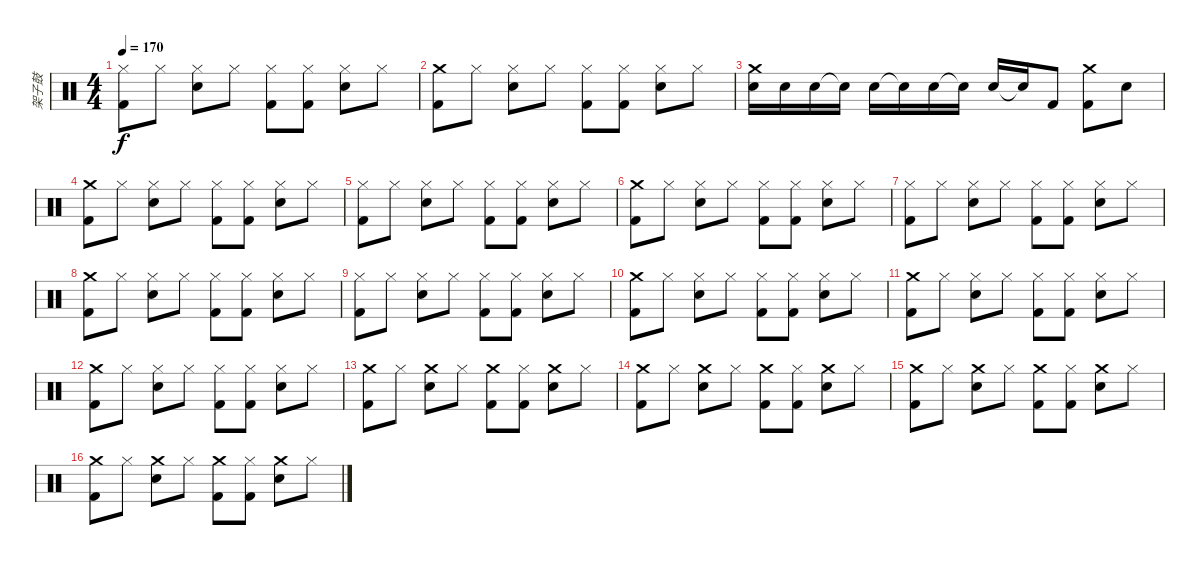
\track ("架子鼓" "架子鼓") {instrument percussion}
\staff {score}
\articulation defaults
\ts (4 4)
\tempo 170
\clef neutral
\ks c
("Hi-Hat (closed)" "Kick (hit) 2").8{dy f} "Hi-Hat (closed)".8 ("Hi-Hat (closed)" "Snare (hit) 2").8 "Hi-Hat (closed)".8 ("Hi-Hat (closed)" "Kick (hit) 2").8 ("Hi-Hat (closed)" "Kick (hit) 2").8 ("Hi-Hat (closed)" "Snare (hit) 2").8 "Hi-Hat (closed)".8 |
("Crash medium (hit)" "Kick (hit) 2").8 "Hi-Hat (closed)".8 ("Hi-Hat (closed)" "Snare (hit) 2").8 "Hi-Hat (closed)".8 ("Hi-Hat (closed)" "Kick (hit) 2").8 ("Hi-Hat (closed)" "Kick (hit) 2").8 ("Hi-Hat (closed)" "Snare (hit) 2").8 "Hi-Hat (closed)".8 |
("Crash medium (hit)" "Snare (hit) 2").16 "Snare (hit) 2".16 "Snare (hit) 2".16 "Snare (hit)"{t}.16 "Snare (hit) 2".16 "Snare (hit)"{t}.16 "Snare (hit) 2".16 "Snare (hit)"{t}.16 "Snare (hit) 2".16 "Snare (hit)"{t}.16 "Kick (hit) 2".8 ("Crash medium (hit)" "Kick (hit) 2").8 "Snare (hit) 2".8 |
("Crash medium (hit)" "Kick (hit) 2").8 "Hi-Hat (closed)".8 ("Hi-Hat (closed)" "Snare (hit) 2").8 "Hi-Hat (closed)".8 ("Hi-Hat (closed)" "Kick (hit) 2").8 ("Hi-Hat (closed)" "Kick (hit) 2").8 ("Hi-Hat (closed)" "Snare (hit) 2").8 "Hi-Hat (closed)".8 |
("Hi-Hat (closed)" "Kick (hit) 2").8 "Hi-Hat (closed)".8 ("Hi-Hat (closed)" "Snare (hit) 2").8 "Hi-Hat (closed)".8 ("Hi-Hat (closed)" "Kick (hit) 2").8 ("Hi-Hat (closed)" "Kick (hit) 2").8 ("Hi-Hat (closed)" "Snare (hit) 2").8 "Hi-Hat (closed)".8 |
("Crash medium (hit)" "Kick (hit) 2").8 "Hi-Hat (closed)".8 ("Hi-Hat (closed)" "Snare (hit) 2").8 "Hi-Hat (closed)".8 ("Hi-Hat (closed)" "Kick (hit) 2").8 ("Hi-Hat (closed)" "Kick (hit) 2").8 ("Hi-Hat (closed)" "Snare (hit) 2").8 "Hi-Hat (closed)".8 |
("Hi-Hat (closed)" "Kick (hit) 2").8 "Hi-Hat (closed)".8 ("Hi-Hat (closed)" "Snare (hit) 2").8 "Hi-Hat (closed)".8 ("Hi-Hat (closed)" "Kick (hit) 2").8 ("Hi-Hat (closed)" "Kick (hit) 2").8 ("Hi-Hat (closed)" "Snare (hit) 2").8 "Hi-Hat (closed)".8 |
("Crash medium (hit)" "Kick (hit) 2").8 "Hi-Hat (closed)".8 ("Hi-Hat (closed)" "Snare (hit) 2").8 "Hi-Hat (closed)".8 ("Hi-Hat (closed)" "Kick (hit) 2").8 ("Hi-Hat (closed)" "Kick (hit) 2").8 ("Hi-Hat (closed)" "Snare (hit) 2").8 "Hi-Hat (closed)".8 |
("Hi-Hat (closed)" "Kick (hit) 2").8 "Hi-Hat (closed)".8 ("Hi-Hat (closed)" "Snare (hit) 2").8 "Hi-Hat (closed)".8 ("Hi-Hat (closed)" "Kick (hit) 2").8 ("Hi-Hat (closed)" "Kick (hit) 2").8 ("Hi-Hat (closed)" "Snare (hit) 2").8 "Hi-Hat (closed)".8 |
("Crash medium (hit)" "Kick (hit) 2").8 "Hi-Hat (closed)".8 ("Hi-Hat (closed)" "Snare (hit) 2").8 "Hi-Hat (closed)".8 ("Hi-Hat (closed)" "Kick (hit) 2").8 ("Hi-Hat (closed)" "Kick (hit) 2").8 ("Hi-Hat (closed)" "Snare (hit) 2").8 "Hi-Hat (closed)".8 |
("Crash medium (hit)" "Kick (hit) 2").8 "Hi-Hat (closed)".8 ("Hi-Hat (closed)" "Snare (hit) 2").8 "Hi-Hat (closed)".8 ("Hi-Hat (closed)" "Kick (hit) 2").8 ("Hi-Hat (closed)" "Kick (hit) 2").8 ("Hi-Hat (closed)" "Snare (hit) 2").8 "Hi-Hat (closed)".8 |
("Crash medium (hit)" "Kick (hit) 2").8 "Hi-Hat (closed)".8 ("Hi-Hat (closed)" "Snare (hit) 2").8 "Hi-Hat (closed)".8 ("Hi-Hat (closed)" "Kick (hit) 2").8 ("Hi-Hat (closed)" "Kick (hit) 2").8 ("Hi-Hat (closed)" "Snare (hit) 2").8 "Hi-Hat (closed)".8 |
("Crash medium (hit)" "Kick (hit) 2").8 "Hi-Hat (closed)".8 ("Crash medium (hit)" "Snare (hit) 2").8 "Hi-Hat (closed)".8 ("Crash medium (hit)" "Kick (hit) 2").8 ("Hi-Hat (closed)" "Kick (hit) 2").8 ("Crash medium (hit)" "Snare (hit) 2").8 "Hi-Hat (closed)".8 |
("Crash medium (hit)" "Kick (hit) 2").8 "Hi-Hat (closed)".8 ("Crash medium (hit)" "Snare (hit) 2").8 "Hi-Hat (closed)".8 ("Crash medium (hit)" "Kick (hit) 2").8 ("Hi-Hat (closed)" "Kick (hit) 2").8 ("Crash medium (hit)" "Snare (hit) 2").8 "Hi-Hat (closed)".8 |
("Crash medium (hit)" "Kick (hit) 2").8 "Hi-Hat (closed)".8 ("Crash medium (hit)" "Snare (hit) 2").8 "Hi-Hat (closed)".8 ("Crash medium (hit)" "Kick (hit) 2").8 ("Hi-Hat (closed)" "Kick (hit) 2").8 ("Crash medium (hit)" "Snare (hit) 2").8 "Hi-Hat (closed)".8 |
("Crash medium (hit)" "Kick (hit) 2").8 "Hi-Hat (closed)".8 ("Crash medium (hit)" "Snare (hit) 2").8 "Hi-Hat (closed)".8 ("Crash medium (hit)" "Kick (hit) 2").8 ("Hi-Hat (closed)" "Kick (hit) 2").8 ("Crash medium (hit)" "Snare (hit) 2").8 "Hi-Hat (closed)".8
